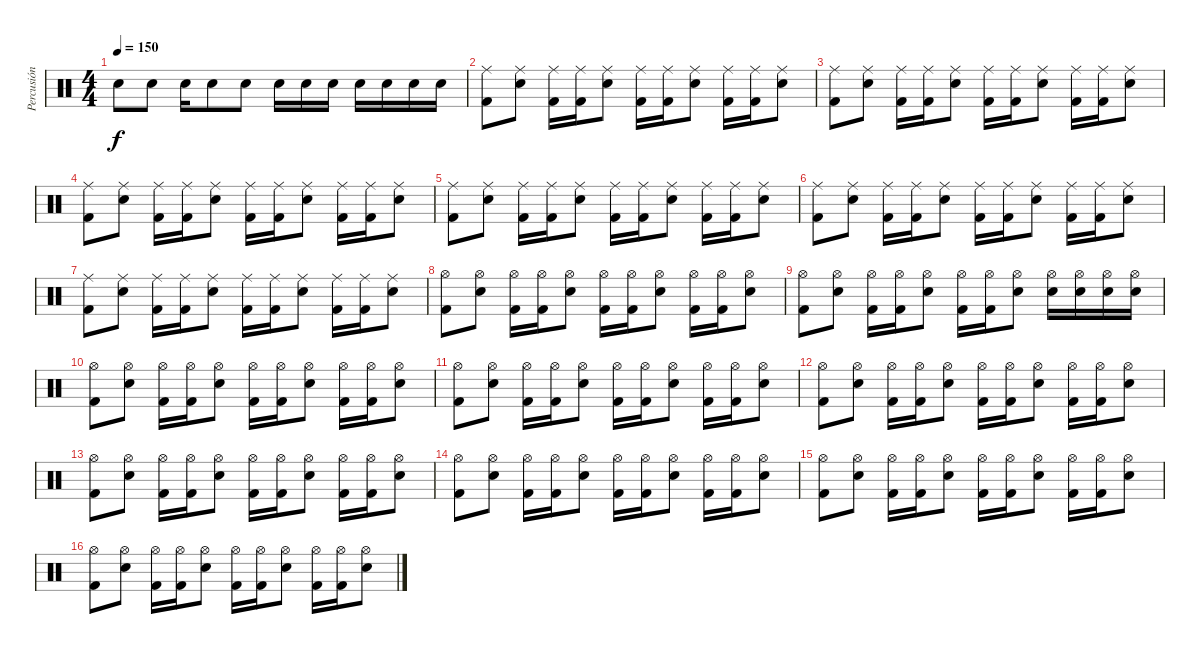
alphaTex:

\track ("Percusión" "Percusión") {instrument percussion}
\staff {score}
\articulation defaults
\ts (4 4)
\tempo 150
\clef neutral
\ks c "Electric Snare (hit)".8{dy f} "Electric Snare (hit)".8 "Electric Snare (hit)".16 "Electric Snare (hit)".8 "Electric Snare (hit)".8 "Electric Snare (hit)".16 "Electric Snare (hit)".16 "Electric Snare (hit)".16 "Electric Snare (hit)".16 "Electric Snare (hit)".16 "Electric Snare (hit)".16 "Electric Snare (hit)".16
|
("Kick (hit) 2" "Ride (middle)").8 ("Electric Snare (hit)" "Ride (middle)").8 ("Kick (hit) 2" "Ride (middle)").16 ("Kick (hit) 2" "Ride (middle)").16 ("Electric Snare (hit)" "Ride (middle)").8 ("Kick (hit) 2" "Ride (middle)").16 ("Kick (hit) 2" "Ride (middle)").16 ("Electric Snare (hit)" "Ride (middle)").8 ("Kick (hit) 2" "Ride (middle)").16 ("Kick (hit) 2" "Ride (middle)").16 ("Electric Snare (hit)" "Ride (middle)").8 |
("Kick (hit) 2" "Ride (middle)").8 ("Electric Snare (hit)" "Ride (middle)").8 ("Kick (hit) 2" "Ride (middle)").16 ("Kick (hit) 2" "Ride (middle)").16 ("Electric Snare (hit)" "Ride (middle)").8 ("Kick (hit) 2" "Ride (middle)").16 ("Kick (hit) 2" "Ride (middle)").16 ("Electric Snare (hit)" "Ride (middle)").8 ("Kick (hit) 2" "Ride (middle)").16 ("Kick (hit) 2" "Ride (middle)").16 ("Electric Snare (hit)" "Ride (middle)").8 |
("Kick (hit) 2" "Ride (middle)").8 ("Electric Snare (hit)" "Ride (middle)").8 ("Kick (hit) 2" "Ride (middle)").16 ("Kick (hit) 2" "Ride (middle)").16 ("Electric Snare (hit)" "Ride (middle)").8 ("Kick (hit) 2" "Ride (middle)").16 ("Kick (hit) 2" "Ride (middle)").16 ("Electric Snare (hit)" "Ride (middle)").8 ("Kick (hit) 2" "Ride (middle)").16 ("Kick (hit) 2" "Ride (middle)").16 ("Electric Snare (hit)" "Ride (middle)").8 |
("Kick (hit) 2" "Ride (middle)").8 ("Electric Snare (hit)" "Ride (middle)").8 ("Kick (hit) 2" "Ride (middle)").16 ("Kick (hit) 2" "Ride (middle)").16 ("Electric Snare (hit)" "Ride (middle)").8 ("Kick (hit) 2" "Ride (middle)").16 ("Kick (hit) 2" "Ride (middle)").16 ("Electric Snare (hit)" "Ride (middle)").8 ("Kick (hit) 2" "Ride (middle)").16 ("Kick (hit) 2" "Ride (middle)").16 ("Electric Snare (hit)" "Ride (middle)").8 |
("Kick (hit) 2" "Ride (middle)").8 ("Electric Snare (hit)" "Ride (middle)").8 ("Kick (hit) 2" "Ride (middle)").16 ("Kick (hit) 2" "Ride (middle)").16 ("Electric Snare (hit)" "Ride (middle)").8 ("Kick (hit) 2" "Ride (middle)").16 ("Kick (hit) 2" "Ride (middle)").16 ("Electric Snare (hit)" "Ride (middle)").8 ("Kick (hit) 2" "Ride (middle)").16 ("Kick (hit) 2" "Ride (middle)").16 ("Electric Snare (hit)" "Ride (middle)").8 |
("Kick (hit) 2" "Ride (middle)").8 ("Electric Snare (hit)" "Ride (middle)").8 ("Kick (hit) 2" "Ride (middle)").16 ("Kick (hit) 2" "Ride (middle)").16 ("Electric Snare (hit)" "Ride (middle)").8 ("Kick (hit) 2" "Ride (middle)").16 ("Kick (hit) 2" "Ride (middle)").16 ("Electric Snare (hit)" "Ride (middle)").8 ("Kick (hit) 2" "Ride (middle)").16 ("Kick (hit) 2" "Ride (middle)").16 ("Electric Snare (hit)" "Ride (middle)").8 |
("Kick (hit) 2" "Hi-Hat (open)").8 ("Electric Snare (hit)" "Hi-Hat (open)").8 ("Kick (hit) 2" "Hi-Hat (open)").16 ("Kick (hit) 2" "Hi-Hat (open)").16 ("Electric Snare (hit)" "Hi-Hat (open)").8 ("Kick (hit) 2" "Hi-Hat (open)").16 ("Kick (hit) 2" "Hi-Hat (open)").16 ("Electric Snare (hit)" "Hi-Hat (open)").8 ("Kick (hit) 2" "Hi-Hat (open)").16 ("Kick (hit) 2" "Hi-Hat (open)").16 ("Electric Snare (hit)" "Hi-Hat (open)").8 |
("Kick (hit) 2" "Hi-Hat (open)").8 ("Electric Snare (hit)" "Hi-Hat (open)").8 ("Kick (hit) 2" "Hi-Hat (open)").16 ("Kick (hit) 2" "Hi-Hat (open)").16 ("Electric Snare (hit)" "Hi-Hat (open)").8 ("Kick (hit) 2" "Hi-Hat (open)").16 ("Kick (hit) 2" "Hi-Hat (open)").16 ("Electric Snare (hit)" "Hi-Hat (open)").8 ("Electric Snare (hit)" "Hi-Hat (open)").16 ("Electric Snare (hit)" "Hi-Hat (open)").16 ("Electric Snare (hit)" "Hi-Hat (open)").16 ("Electric Snare (hit)" "Hi-Hat (open)").16 |
("Kick (hit) 2" "Hi-Hat (open)").8 ("Electric Snare (hit)" "Hi-Hat (open)").8 ("Kick (hit) 2" "Hi-Hat (open)").16 ("Kick (hit) 2" "Hi-Hat (open)").16 ("Electric Snare (hit)" "Hi-Hat (open)").8 ("Kick (hit) 2" "Hi-Hat (open)").16 ("Kick (hit) 2" "Hi-Hat (open)").16 ("Electric Snare (hit)" "Hi-Hat (open)").8 ("Kick (hit) 2" "Hi-Hat (open)").16 ("Kick (hit) 2" "Hi-Hat (open)").16 ("Electric Snare (hit)" "Hi-Hat (open)").8 |
("Kick (hit) 2" "Hi-Hat (open)").8 ("Electric Snare (hit)" "Hi-Hat (open)").8 ("Kick (hit) 2" "Hi-Hat (open)").16 ("Kick (hit) 2" "Hi-Hat (open)").16 ("Electric Snare (hit)" "Hi-Hat (open)").8 ("Kick (hit) 2" "Hi-Hat (open)").16 ("Kick (hit) 2" "Hi-Hat (open)").16 ("Electric Snare (hit)" "Hi-Hat (open)").8 ("Kick (hit) 2" "Hi-Hat (open)").16 ("Kick (hit) 2" "Hi-Hat (open)").16 ("Electric Snare (hit)" "Hi-Hat (open)").8 |
("Kick (hit) 2" "Hi-Hat (open)").8 ("Electric Snare (hit)" "Hi-Hat (open)").8 ("Kick (hit) 2" "Hi-Hat (open)").16 ("Kick (hit) 2" "Hi-Hat (open)").16 ("Electric Snare (hit)" "Hi-Hat (open)").8 ("Kick (hit) 2" "Hi-Hat (open)").16 ("Kick (hit) 2" "Hi-Hat (open)").16 ("Electric Snare (hit)" "Hi-Hat (open)").8 ("Kick (hit) 2" "Hi-Hat (open)").16 ("Kick (hit) 2" "Hi-Hat (open)").16 ("Electric Snare (hit)" "Hi-Hat (open)").8 |
("Kick (hit) 2" "Hi-Hat (open)").8 ("Electric Snare (hit)" "Hi-Hat (open)").8 ("Kick (hit) 2" "Hi-Hat (open)").16 ("Kick (hit) 2" "Hi-Hat (open)").16 ("Electric Snare (hit)" "Hi-Hat (open)").8 ("Kick (hit) 2" "Hi-Hat (open)").16 ("Kick (hit) 2" "Hi-Hat (open)").16 ("Electric Snare (hit)" "Hi-Hat (open)").8 ("Kick (hit) 2" "Hi-Hat (open)").16 ("Kick (hit) 2" "Hi-Hat (open)").16 ("Electric Snare (hit)" "Hi-Hat (open)").8 |
("Kick (hit) 2" "Hi-Hat (open)").8 ("Electric Snare (hit)" "Hi-Hat (open)").8 ("Kick (hit) 2" "Hi-Hat (open)").16 ("Kick (hit) 2" "Hi-Hat (open)").16 ("Electric Snare (hit)" "Hi-Hat (open)").8 ("Kick (hit) 2" "Hi-Hat (open)").16 ("Kick (hit) 2" "Hi-Hat (open)").16 ("Electric Snare (hit)" "Hi-Hat (open)").8 ("Kick (hit) 2" "Hi-Hat (open)").16 ("Kick (hit) 2" "Hi-Hat (open)").16 ("Electric Snare (hit)" "Hi-Hat (open)").8 |
("Kick (hit) 2" "Hi-Hat (open)").8 ("Electric Snare (hit)" "Hi-Hat (open)").8 ("Kick (hit) 2" "Hi-Hat (open)").16 ("Kick (hit) 2" "Hi-Hat (open)").16 ("Electric Snare (hit)" "Hi-Hat (open)").8 ("Kick (hit) 2" "Hi-Hat (open)").16 ("Kick (hit) 2" "Hi-Hat (open)").16 ("Electric Snare (hit)" "Hi-Hat (open)").8 ("Kick (hit) 2" "Hi-Hat (open)").16 ("Kick (hit) 2" "Hi-Hat (open)").16 ("Electric Snare (hit)" "Hi-Hat (open)").8 |
("Kick (hit) 2" "Hi-Hat (open)").8 ("Electric Snare (hit)" "Hi-Hat (open)").8 ("Kick (hit) 2" "Hi-Hat (open)").16 ("Kick (hit) 2" "Hi-Hat (open)").16 ("Electric Snare (hit)" "Hi-Hat (open)").8 ("Kick (hit) 2" "Hi-Hat (open)").16 ("Kick (hit) 2" "Hi-Hat (open)").16 ("Electric Snare (hit)" "Hi-Hat (open)").8 ("Kick (hit) 2" "Hi-Hat (open)").16 ("Kick (hit) 2" "Hi-Hat (open)").16 ("Electric Snare (hit)" "Hi-Hat (open)").8
